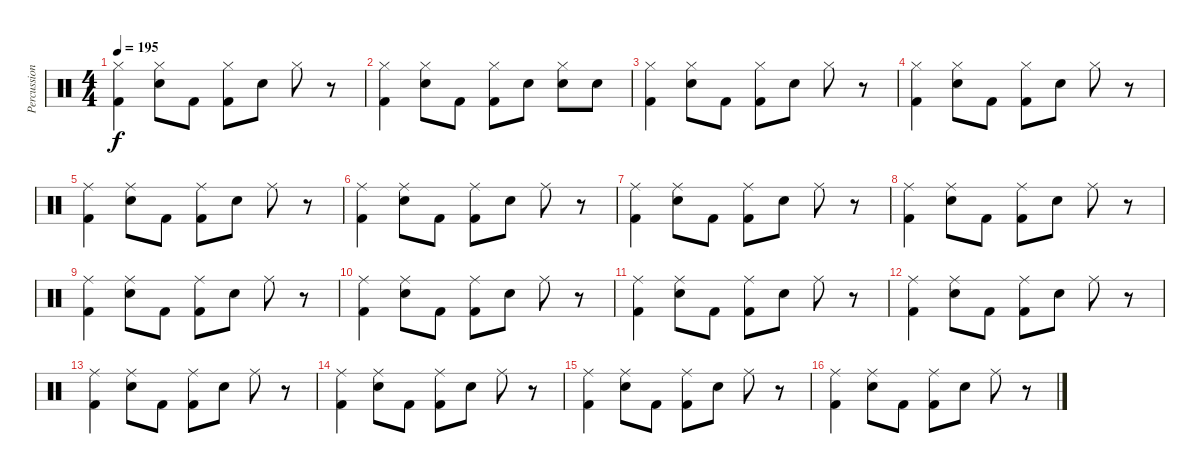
\track ("Percussion" "Percussion") {instrument percussion}
\staff {score}
\articulation defaults
\ts (4 4)
\tempo 195
\clef neutral
\ks c
("Hi-Hat (closed)" "Kick (hit) 2").4{dy f} ("Hi-Hat (closed)" "Snare (hit) 2").8 "Kick (hit) 2".8 ("Hi-Hat (closed)" "Kick (hit) 2").8 "Snare (hit) 2".8 "Hi-Hat (closed)".8 r.8 |
("Hi-Hat (closed)" "Kick (hit) 2").4 ("Hi-Hat (closed)" "Snare (hit) 2").8 "Kick (hit) 2".8 ("Hi-Hat (closed)" "Kick (hit) 2").8 "Snare (hit) 2".8 ("Hi-Hat (closed)" "Snare (hit) 2").8 "Snare (hit) 2".8 |
("Hi-Hat (closed)" "Kick (hit) 2").4 ("Hi-Hat (closed)" "Snare (hit) 2").8 "Kick (hit) 2".8 ("Hi-Hat (closed)" "Kick (hit) 2").8 "Snare (hit) 2".8 "Hi-Hat (closed)".8 r.8 |
("Hi-Hat (closed)" "Kick (hit) 2").4 ("Hi-Hat (closed)" "Snare (hit) 2").8 "Kick (hit) 2".8 ("Hi-Hat (closed)" "Kick (hit) 2").8 "Snare (hit) 2".8 "Hi-Hat (closed)".8 r.8 |
("Ride (middle)" "Kick (hit) 2").4 ("Ride (middle)" "Snare (hit) 2").8 "Kick (hit) 2".8 ("Ride (middle)" "Kick (hit) 2").8 "Snare (hit) 2".8 "Ride (middle)".8 r.8 |
("Ride (middle)" "Kick (hit) 2").4 ("Ride (middle)" "Snare (hit) 2").8 "Kick (hit) 2".8 ("Ride (middle)" "Kick (hit) 2").8 "Snare (hit) 2".8 "Ride (middle)".8 r.8 |
("Ride (middle)" "Kick (hit) 2").4 ("Ride (middle)" "Snare (hit) 2").8 "Kick (hit) 2".8 ("Ride (middle)" "Kick (hit) 2").8 "Snare (hit) 2".8 "Ride (middle)".8 r.8 |
("Ride (middle)" "Kick (hit) 2").4 ("Ride (middle)" "Snare (hit) 2").8 "Kick (hit) 2".8 ("Ride (middle)" "Kick (hit) 2").8 "Snare (hit) 2".8 "Ride (middle)".8 r.8 |
("Ride (middle)" "Kick (hit) 2").4 ("Ride (middle)" "Snare (hit) 2").8 "Kick (hit) 2".8 ("Ride (middle)" "Kick (hit) 2").8 "Snare (hit) 2".8 "Ride (middle)".8 r.8 |
("Ride (middle)" "Kick (hit) 2").4 ("Ride (middle)" "Snare (hit) 2").8 "Kick (hit) 2".8 ("Ride (middle)" "Kick (hit) 2").8 "Snare (hit) 2".8 "Ride (middle)".8 r.8 |
("Ride (middle)" "Kick (hit) 2").4 ("Ride (middle)" "Snare (hit) 2").8 "Kick (hit) 2".8 ("Ride (middle)" "Kick (hit) 2").8 "Snare (hit) 2".8 "Ride (middle)".8 r.8 |
("Ride (middle)" "Kick (hit) 2").4 ("Ride (middle)" "Snare (hit) 2").8 "Kick (hit) 2".8 ("Ride (middle)" "Kick (hit) 2").8 "Snare (hit) 2".8 "Ride (middle)".8 r.8 |
("Ride (middle)" "Kick (hit) 2").4 ("Ride (middle)" "Snare (hit) 2").8 "Kick (hit) 2".8 ("Ride (middle)" "Kick (hit) 2").8 "Snare (hit) 2".8 "Ride (middle)".8 r.8 |
("Ride (middle)" "Kick (hit) 2").4 ("Ride (middle)" "Snare (hit) 2").8 "Kick (hit) 2".8 ("Ride (middle)" "Kick (hit) 2").8 "Snare (hit) 2".8 "Ride (middle)".8 r.8 |
("Ride (middle)" "Kick (hit) 2").4 ("Ride (middle)" "Snare (hit) 2").8 "Kick (hit) 2".8 ("Ride (middle)" "Kick (hit) 2").8 "Snare (hit) 2".8 "Ride (middle)".8 r.8 |
("Ride (middle)" "Kick (hit) 2").4 ("Ride (middle)" "Snare (hit) 2").8 "Kick (hit) 2".8 ("Ride (middle)" "Kick (hit) 2").8 "Snare (hit) 2".8 "Ride (middle)".8 r.8
